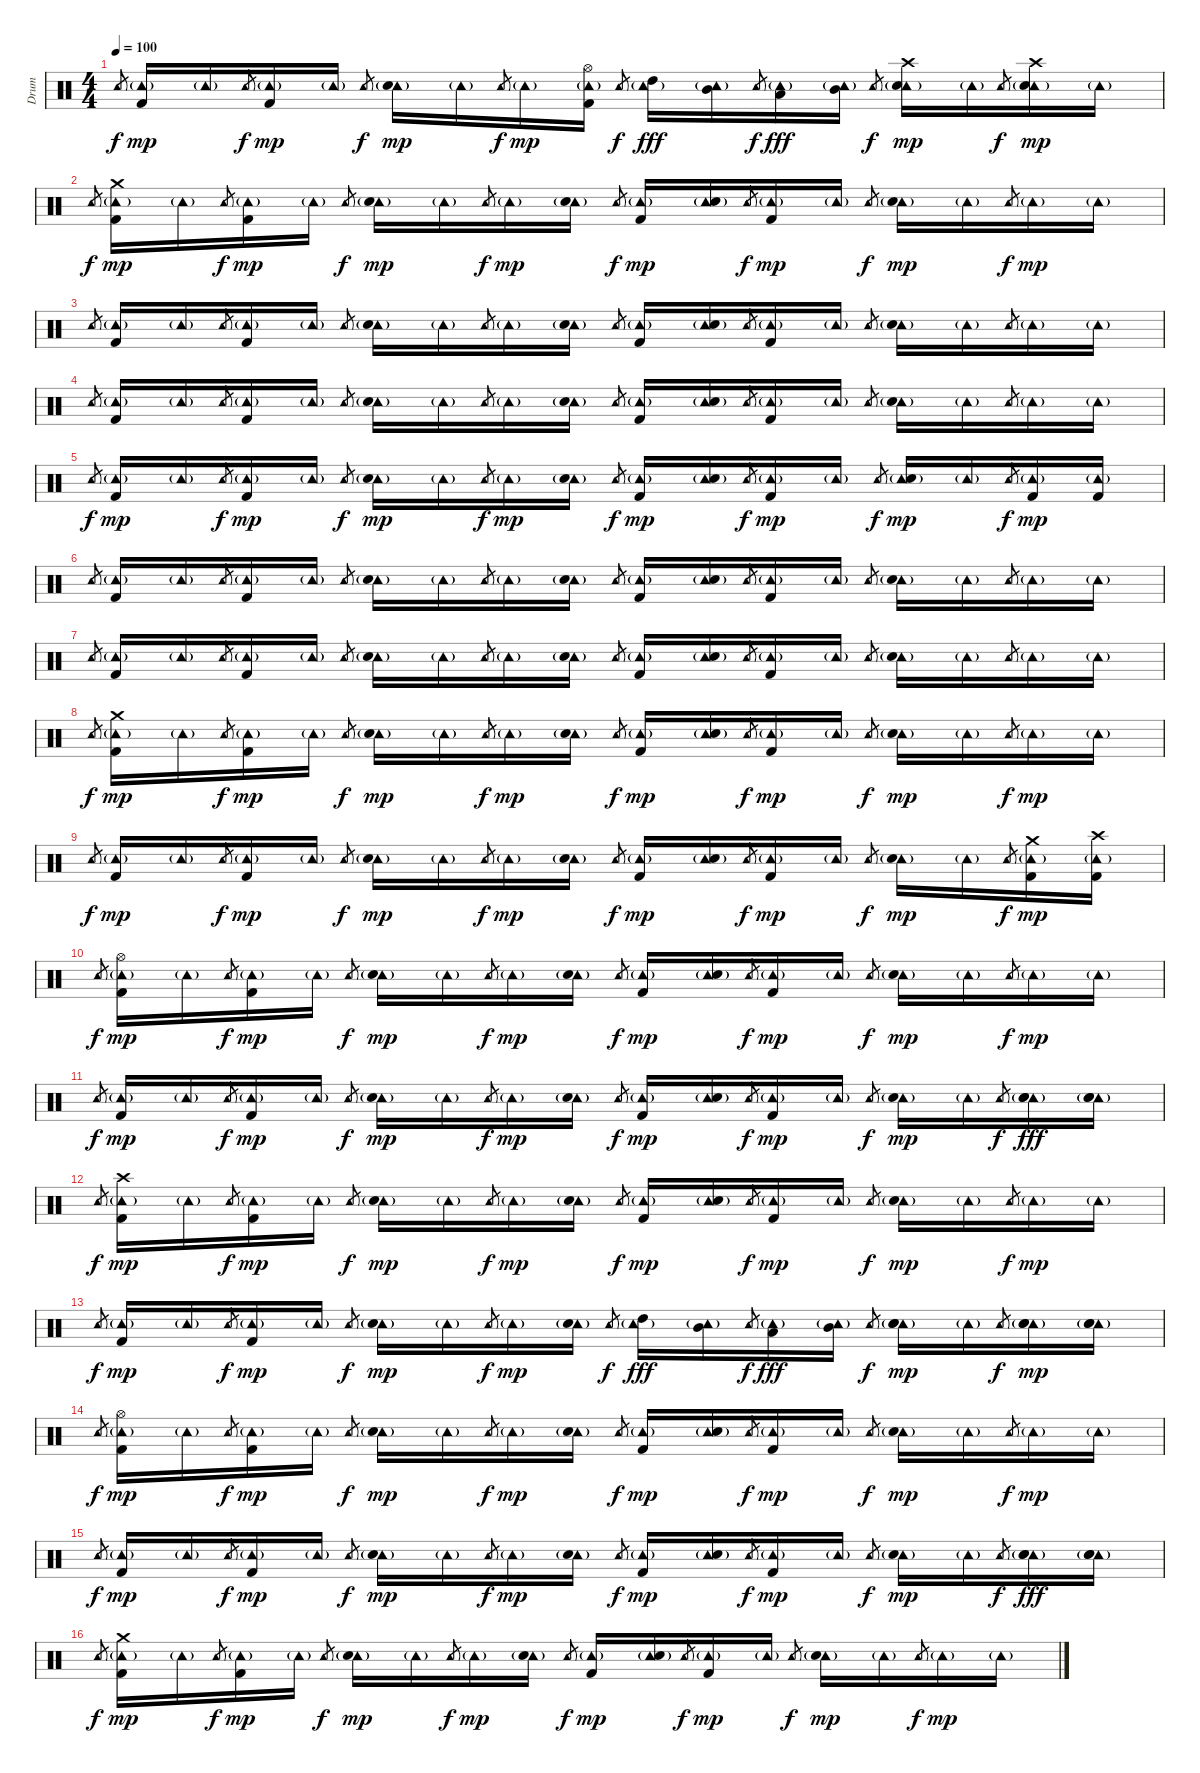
\track ("Drum" "Drum") {instrument percussion}
\staff {score}
\articulation defaults
\ts (4 4)
\tempo 100
\clef neutral
\ks c "Tambourine (hit)".8{gr dy f}
("Tambourine (hit)"{g} "Kick (hit) 2").16{dy mp} "Tambourine (hit)"{g}.16 "Tambourine (hit)".8{gr dy f} ("Tambourine (hit)"{g} "Kick (hit) 2").16{dy mp} "Tambourine (hit)"{g}.16 "Tambourine (hit)".8{gr dy f} ("Tambourine (hit)"{g} "Electric Snare (hit)").16{dy mp} "Tambourine (hit)"{g}.16 "Tambourine (hit)".8{gr dy f} "Tambourine (hit)"{g}.16{dy mp} ("Hi-Hat (open)" "Tambourine (hit)"{g} "Kick (hit) 2").16 "Tambourine (hit)".8{gr dy f} ("Tambourine (hit)"{g} "High Tom (hit)").16{dy fff} ("Tambourine (hit)"{g} "Mid Tom (hit)").16 "Tambourine (hit)".8{gr dy f} ("Tambourine (hit)"{g} "Low Tom (hit)").16{dy fff} ("Tambourine (hit)"{g} "Mid Tom (hit)").16 "Tambourine (hit)".8{gr dy f} ("Crash high (hit)" "Tambourine (hit)"{g} "Electric Snare (hit)").16{dy mp} "Tambourine (hit)"{g}.16 "Tambourine (hit)".8{gr dy f} ("Crash high (hit)" "Tambourine (hit)"{g} "Electric Snare (hit)").16{dy mp} "Tambourine (hit)"{g}.16 |
"Tambourine (hit)".8{gr dy f} ("Crash medium (hit)" "Tambourine (hit)"{g} "Kick (hit) 2").16{dy mp} "Tambourine (hit)"{g}.16 "Tambourine (hit)".8{gr dy f} ("Tambourine (hit)"{g} "Kick (hit) 2").16{dy mp} "Tambourine (hit)"{g}.16 "Tambourine (hit)".8{gr dy f} ("Tambourine (hit)"{g} "Electric Snare (hit)").16{dy mp} "Tambourine (hit)"{g}.16 "Tambourine (hit)".8{gr dy f} "Tambourine (hit)"{g}.16{dy mp} ("Tambourine (hit)"{g} "Electric Snare (hit)").16 "Tambourine (hit)".8{gr dy f} ("Tambourine (hit)"{g} "Kick (hit) 2").16{dy mp} ("Tambourine (hit)"{g} "Electric Snare (hit)").16 "Tambourine (hit)".8{gr dy f} ("Tambourine (hit)"{g} "Kick (hit) 2").16{dy mp} "Tambourine (hit)"{g}.16 "Tambourine (hit)".8{gr dy f} ("Tambourine (hit)"{g} "Electric Snare (hit)").16{dy mp} "Tambourine (hit)"{g}.16 "Tambourine (hit)".8{gr dy f} "Tambourine (hit)"{g}.16{dy mp} "Tambourine (hit)"{g}.16 |
"Tambourine (hit)".8{gr} ("Tambourine (hit)"{g} "Kick (hit) 2").16 "Tambourine (hit)"{g}.16 "Tambourine (hit)".8{gr} ("Tambourine (hit)"{g} "Kick (hit) 2").16 "Tambourine (hit)"{g}.16 "Tambourine (hit)".8{gr} ("Tambourine (hit)"{g} "Electric Snare (hit)").16 "Tambourine (hit)"{g}.16 "Tambourine (hit)".8{gr} "Tambourine (hit)"{g}.16 ("Tambourine (hit)"{g} "Electric Snare (hit)").16 "Tambourine (hit)".8{gr} ("Tambourine (hit)"{g} "Kick (hit) 2").16 ("Tambourine (hit)"{g} "Electric Snare (hit)").16 "Tambourine (hit)".8{gr} ("Tambourine (hit)"{g} "Kick (hit) 2").16 "Tambourine (hit)"{g}.16 "Tambourine (hit)".8{gr} ("Tambourine (hit)"{g} "Electric Snare (hit)").16 "Tambourine (hit)"{g}.16 "Tambourine (hit)".8{gr} "Tambourine (hit)"{g}.16 "Tambourine (hit)"{g}.16 |
"Tambourine (hit)".8{gr} ("Tambourine (hit)"{g} "Kick (hit) 2").16 "Tambourine (hit)"{g}.16 "Tambourine (hit)".8{gr} ("Tambourine (hit)"{g} "Kick (hit) 2").16 "Tambourine (hit)"{g}.16 "Tambourine (hit)".8{gr} ("Tambourine (hit)"{g} "Electric Snare (hit)").16 "Tambourine (hit)"{g}.16 "Tambourine (hit)".8{gr} "Tambourine (hit)"{g}.16 ("Tambourine (hit)"{g} "Electric Snare (hit)").16 "Tambourine (hit)".8{gr} ("Tambourine (hit)"{g} "Kick (hit) 2").16 ("Tambourine (hit)"{g} "Electric Snare (hit)").16 "Tambourine (hit)".8{gr} ("Tambourine (hit)"{g} "Kick (hit) 2").16 "Tambourine (hit)"{g}.16 "Tambourine (hit)".8{gr} ("Tambourine (hit)"{g} "Electric Snare (hit)").16 "Tambourine (hit)"{g}.16 "Tambourine (hit)".8{gr} "Tambourine (hit)"{g}.16 "Tambourine (hit)"{g}.16 |
"Tambourine (hit)".8{gr dy f} ("Tambourine (hit)"{g} "Kick (hit) 2").16{dy mp} "Tambourine (hit)"{g}.16 "Tambourine (hit)".8{gr dy f} ("Tambourine (hit)"{g} "Kick (hit) 2").16{dy mp} "Tambourine (hit)"{g}.16 "Tambourine (hit)".8{gr dy f} ("Tambourine (hit)"{g} "Electric Snare (hit)").16{dy mp} "Tambourine (hit)"{g}.16 "Tambourine (hit)".8{gr dy f} "Tambourine (hit)"{g}.16{dy mp} ("Tambourine (hit)"{g} "Electric Snare (hit)").16 "Tambourine (hit)".8{gr dy f} ("Tambourine (hit)"{g} "Kick (hit) 2").16{dy mp} ("Tambourine (hit)"{g} "Electric Snare (hit)").16 "Tambourine (hit)".8{gr dy f} ("Tambourine (hit)"{g} "Kick (hit) 2").16{dy mp} "Tambourine (hit)"{g}.16 "Tambourine (hit)".8{gr dy f} ("Tambourine (hit)"{g} "Electric Snare (hit)").16{dy mp} "Tambourine (hit)"{g}.16 "Tambourine (hit)".8{gr dy f} ("Tambourine (hit)"{g} "Kick (hit) 2").16{dy mp} ("Tambourine (hit)"{g} "Kick (hit) 2").16 |
"Tambourine (hit)".8{gr} ("Tambourine (hit)"{g} "Kick (hit) 2").16 "Tambourine (hit)"{g}.16 "Tambourine (hit)".8{gr} ("Tambourine (hit)"{g} "Kick (hit) 2").16 "Tambourine (hit)"{g}.16 "Tambourine (hit)".8{gr} ("Tambourine (hit)"{g} "Electric Snare (hit)").16 "Tambourine (hit)"{g}.16 "Tambourine (hit)".8{gr} "Tambourine (hit)"{g}.16 ("Tambourine (hit)"{g} "Electric Snare (hit)").16 "Tambourine (hit)".8{gr} ("Tambourine (hit)"{g} "Kick (hit) 2").16 ("Tambourine (hit)"{g} "Electric Snare (hit)").16 "Tambourine (hit)".8{gr} ("Tambourine (hit)"{g} "Kick (hit) 2").16 "Tambourine (hit)"{g}.16 "Tambourine (hit)".8{gr} ("Tambourine (hit)"{g} "Electric Snare (hit)").16 "Tambourine (hit)"{g}.16 "Tambourine (hit)".8{gr} "Tambourine (hit)"{g}.16 "Tambourine (hit)"{g}.16 |
"Tambourine (hit)".8{gr} ("Tambourine (hit)"{g} "Kick (hit) 2").16 "Tambourine (hit)"{g}.16 "Tambourine (hit)".8{gr} ("Tambourine (hit)"{g} "Kick (hit) 2").16 "Tambourine (hit)"{g}.16 "Tambourine (hit)".8{gr} ("Tambourine (hit)"{g} "Electric Snare (hit)").16 "Tambourine (hit)"{g}.16 "Tambourine (hit)".8{gr} "Tambourine (hit)"{g}.16 ("Tambourine (hit)"{g} "Electric Snare (hit)").16 "Tambourine (hit)".8{gr} ("Tambourine (hit)"{g} "Kick (hit) 2").16 ("Tambourine (hit)"{g} "Electric Snare (hit)").16 "Tambourine (hit)".8{gr} ("Tambourine (hit)"{g} "Kick (hit) 2").16 "Tambourine (hit)"{g}.16 "Tambourine (hit)".8{gr} ("Tambourine (hit)"{g} "Electric Snare (hit)").16 "Tambourine (hit)"{g}.16 "Tambourine (hit)".8{gr} "Tambourine (hit)"{g}.16 "Tambourine (hit)"{g}.16 |
"Tambourine (hit)".8{gr dy f} ("Crash medium (hit)" "Tambourine (hit)"{g} "Kick (hit) 2").16{dy mp} "Tambourine (hit)"{g}.16 "Tambourine (hit)".8{gr dy f} ("Tambourine (hit)"{g} "Kick (hit) 2").16{dy mp} "Tambourine (hit)"{g}.16 "Tambourine (hit)".8{gr dy f} ("Tambourine (hit)"{g} "Electric Snare (hit)").16{dy mp} "Tambourine (hit)"{g}.16 "Tambourine (hit)".8{gr dy f} "Tambourine (hit)"{g}.16{dy mp} ("Tambourine (hit)"{g} "Electric Snare (hit)").16 "Tambourine (hit)".8{gr dy f} ("Tambourine (hit)"{g} "Kick (hit) 2").16{dy mp} ("Tambourine (hit)"{g} "Electric Snare (hit)").16 "Tambourine (hit)".8{gr dy f} ("Tambourine (hit)"{g} "Kick (hit) 2").16{dy mp} "Tambourine (hit)"{g}.16 "Tambourine (hit)".8{gr dy f} ("Tambourine (hit)"{g} "Electric Snare (hit)").16{dy mp} "Tambourine (hit)"{g}.16 "Tambourine (hit)".8{gr dy f} "Tambourine (hit)"{g}.16{dy mp} "Tambourine (hit)"{g}.16 |
"Tambourine (hit)".8{gr dy f} ("Tambourine (hit)"{g} "Kick (hit) 2").16{dy mp} "Tambourine (hit)"{g}.16 "Tambourine (hit)".8{gr dy f} ("Tambourine (hit)"{g} "Kick (hit) 2").16{dy mp} "Tambourine (hit)"{g}.16 "Tambourine (hit)".8{gr dy f} ("Tambourine (hit)"{g} "Electric Snare (hit)").16{dy mp} "Tambourine (hit)"{g}.16 "Tambourine (hit)".8{gr dy f} "Tambourine (hit)"{g}.16{dy mp} ("Tambourine (hit)"{g} "Electric Snare (hit)").16 "Tambourine (hit)".8{gr dy f} ("Tambourine (hit)"{g} "Kick (hit) 2").16{dy mp} ("Tambourine (hit)"{g} "Electric Snare (hit)").16 "Tambourine (hit)".8{gr dy f} ("Tambourine (hit)"{g} "Kick (hit) 2").16{dy mp} "Tambourine (hit)"{g}.16 "Tambourine (hit)".8{gr dy f} ("Tambourine (hit)"{g} "Electric Snare (hit)").16{dy mp} "Tambourine (hit)"{g}.16 "Tambourine (hit)".8{gr dy f} ("Crash medium (hit)" "Tambourine (hit)"{g} "Kick (hit) 2").16{dy mp} ("Crash high (hit)" "Tambourine (hit)"{g} "Kick (hit) 2").16 |
"Tambourine (hit)".8{gr dy f} ("Hi-Hat (open)" "Tambourine (hit)"{g} "Kick (hit) 2").16{dy mp} "Tambourine (hit)"{g}.16 "Tambourine (hit)".8{gr dy f} ("Tambourine (hit)"{g} "Kick (hit) 2").16{dy mp} "Tambourine (hit)"{g}.16 "Tambourine (hit)".8{gr dy f} ("Tambourine (hit)"{g} "Electric Snare (hit)").16{dy mp} "Tambourine (hit)"{g}.16 "Tambourine (hit)".8{gr dy f} "Tambourine (hit)"{g}.16{dy mp} ("Tambourine (hit)"{g} "Electric Snare (hit)").16 "Tambourine (hit)".8{gr dy f} ("Tambourine (hit)"{g} "Kick (hit) 2").16{dy mp} ("Tambourine (hit)"{g} "Electric Snare (hit)").16 "Tambourine (hit)".8{gr dy f} ("Tambourine (hit)"{g} "Kick (hit) 2").16{dy mp} "Tambourine (hit)"{g}.16 "Tambourine (hit)".8{gr dy f} ("Tambourine (hit)"{g} "Electric Snare (hit)").16{dy mp} "Tambourine (hit)"{g}.16 "Tambourine (hit)".8{gr dy f} "Tambourine (hit)"{g}.16{dy mp} "Tambourine (hit)"{g}.16 |
"Tambourine (hit)".8{gr dy f} ("Tambourine (hit)"{g} "Kick (hit) 2").16{dy mp} "Tambourine (hit)"{g}.16 "Tambourine (hit)".8{gr dy f} ("Tambourine (hit)"{g} "Kick (hit) 2").16{dy mp} "Tambourine (hit)"{g}.16 "Tambourine (hit)".8{gr dy f} ("Tambourine (hit)"{g} "Electric Snare (hit)").16{dy mp} "Tambourine (hit)"{g}.16 "Tambourine (hit)".8{gr dy f} "Tambourine (hit)"{g}.16{dy mp} ("Tambourine (hit)"{g} "Electric Snare (hit)").16 "Tambourine (hit)".8{gr dy f} ("Tambourine (hit)"{g} "Kick (hit) 2").16{dy mp} ("Tambourine (hit)"{g} "Electric Snare (hit)").16 "Tambourine (hit)".8{gr dy f} ("Tambourine (hit)"{g} "Kick (hit) 2").16{dy mp} "Tambourine (hit)"{g}.16 "Tambourine (hit)".8{gr dy f} ("Tambourine (hit)"{g} "Electric Snare (hit)").16{dy mp} "Tambourine (hit)"{g}.16 "Tambourine (hit)".8{gr dy f} ("Tambourine (hit)"{g} "Electric Snare (hit)" "Electric Snare (hit)").16{dy fff} ("Tambourine (hit)"{g} "Electric Snare (hit)" "Electric Snare (hit)").16 |
"Tambourine (hit)".8{gr dy f} ("Crash high (hit)" "Tambourine (hit)"{g} "Kick (hit) 2").16{dy mp} "Tambourine (hit)"{g}.16 "Tambourine (hit)".8{gr dy f} ("Tambourine (hit)"{g} "Kick (hit) 2").16{dy mp} "Tambourine (hit)"{g}.16 "Tambourine (hit)".8{gr dy f} ("Tambourine (hit)"{g} "Electric Snare (hit)").16{dy mp} "Tambourine (hit)"{g}.16 "Tambourine (hit)".8{gr dy f} "Tambourine (hit)"{g}.16{dy mp} ("Tambourine (hit)"{g} "Electric Snare (hit)").16 "Tambourine (hit)".8{gr dy f} ("Tambourine (hit)"{g} "Kick (hit) 2").16{dy mp} ("Tambourine (hit)"{g} "Electric Snare (hit)").16 "Tambourine (hit)".8{gr dy f} ("Tambourine (hit)"{g} "Kick (hit) 2").16{dy mp} "Tambourine (hit)"{g}.16 "Tambourine (hit)".8{gr dy f} ("Tambourine (hit)"{g} "Electric Snare (hit)").16{dy mp} "Tambourine (hit)"{g}.16 "Tambourine (hit)".8{gr dy f} "Tambourine (hit)"{g}.16{dy mp} "Tambourine (hit)"{g}.16 |
"Tambourine (hit)".8{gr dy f} ("Tambourine (hit)"{g} "Kick (hit) 2").16{dy mp} "Tambourine (hit)"{g}.16 "Tambourine (hit)".8{gr dy f} ("Tambourine (hit)"{g} "Kick (hit) 2").16{dy mp} "Tambourine (hit)"{g}.16 "Tambourine (hit)".8{gr dy f} ("Tambourine (hit)"{g} "Electric Snare (hit)").16{dy mp} "Tambourine (hit)"{g}.16 "Tambourine (hit)".8{gr dy f} "Tambourine (hit)"{g}.16{dy mp} ("Tambourine (hit)"{g} "Electric Snare (hit)").16 "Tambourine (hit)".8{gr dy f} ("Tambourine (hit)"{g} "High Tom (hit)").16{dy fff} ("Tambourine (hit)"{g} "Mid Tom (hit)").16 "Tambourine (hit)".8{gr dy f} ("Tambourine (hit)"{g} "Low Tom (hit)").16{dy fff} ("Tambourine (hit)"{g} "Mid Tom (hit)").16 "Tambourine (hit)".8{gr dy f} ("Tambourine (hit)"{g} "Electric Snare (hit)" "Electric Snare (hit)").16{dy mp} "Tambourine (hit)"{g}.16 "Tambourine (hit)".8{gr dy f} ("Tambourine (hit)"{g} "Electric Snare (hit)" "Electric Snare (hit)").16{dy mp} ("Tambourine (hit)"{g} "Electric Snare (hit)" "Electric Snare (hit)").16 |
"Tambourine (hit)".8{gr dy f} ("Hi-Hat (open)" "Tambourine (hit)"{g} "Kick (hit) 2").16{dy mp} "Tambourine (hit)"{g}.16 "Tambourine (hit)".8{gr dy f} ("Tambourine (hit)"{g} "Kick (hit) 2").16{dy mp} "Tambourine (hit)"{g}.16 "Tambourine (hit)".8{gr dy f} ("Tambourine (hit)"{g} "Electric Snare (hit)").16{dy mp} "Tambourine (hit)"{g}.16 "Tambourine (hit)".8{gr dy f} "Tambourine (hit)"{g}.16{dy mp} ("Tambourine (hit)"{g} "Electric Snare (hit)").16 "Tambourine (hit)".8{gr dy f} ("Tambourine (hit)"{g} "Kick (hit) 2").16{dy mp} ("Tambourine (hit)"{g} "Electric Snare (hit)").16 "Tambourine (hit)".8{gr dy f} ("Tambourine (hit)"{g} "Kick (hit) 2").16{dy mp} "Tambourine (hit)"{g}.16 "Tambourine (hit)".8{gr dy f} ("Tambourine (hit)"{g} "Electric Snare (hit)").16{dy mp} "Tambourine (hit)"{g}.16 "Tambourine (hit)".8{gr dy f} "Tambourine (hit)"{g}.16{dy mp} "Tambourine (hit)"{g}.16 |
"Tambourine (hit)".8{gr dy f} ("Tambourine (hit)"{g} "Kick (hit) 2").16{dy mp} "Tambourine (hit)"{g}.16 "Tambourine (hit)".8{gr dy f} ("Tambourine (hit)"{g} "Kick (hit) 2").16{dy mp} "Tambourine (hit)"{g}.16 "Tambourine (hit)".8{gr dy f} ("Tambourine (hit)"{g} "Electric Snare (hit)").16{dy mp} "Tambourine (hit)"{g}.16 "Tambourine (hit)".8{gr dy f} "Tambourine (hit)"{g}.16{dy mp} ("Tambourine (hit)"{g} "Electric Snare (hit)").16 "Tambourine (hit)".8{gr dy f} ("Tambourine (hit)"{g} "Kick (hit) 2").16{dy mp} ("Tambourine (hit)"{g} "Electric Snare (hit)").16 "Tambourine (hit)".8{gr dy f} ("Tambourine (hit)"{g} "Kick (hit) 2").16{dy mp} "Tambourine (hit)"{g}.16 "Tambourine (hit)".8{gr dy f} ("Tambourine (hit)"{g} "Electric Snare (hit)").16{dy mp} "Tambourine (hit)"{g}.16 "Tambourine (hit)".8{gr dy f} ("Tambourine (hit)"{g} "Electric Snare (hit)" "Electric Snare (hit)").16{dy fff} ("Tambourine (hit)"{g} "Electric Snare (hit)" "Electric Snare (hit)").16 |
"Tambourine (hit)".8{gr dy f} ("Crash medium (hit)" "Tambourine (hit)"{g} "Kick (hit) 2").16{dy mp} "Tambourine (hit)"{g}.16 "Tambourine (hit)".8{gr dy f} ("Tambourine (hit)"{g} "Kick (hit) 2").16{dy mp} "Tambourine (hit)"{g}.16 "Tambourine (hit)".8{gr dy f} ("Tambourine (hit)"{g} "Electric Snare (hit)").16{dy mp} "Tambourine (hit)"{g}.16 "Tambourine (hit)".8{gr dy f} "Tambourine (hit)"{g}.16{dy mp} ("Tambourine (hit)"{g} "Electric Snare (hit)").16 "Tambourine (hit)".8{gr dy f} ("Tambourine (hit)"{g} "Kick (hit) 2").16{dy mp} ("Tambourine (hit)"{g} "Electric Snare (hit)").16 "Tambourine (hit)".8{gr dy f} ("Tambourine (hit)"{g} "Kick (hit) 2").16{dy mp} "Tambourine (hit)"{g}.16 "Tambourine (hit)".8{gr dy f} ("Tambourine (hit)"{g} "Electric Snare (hit)").16{dy mp} "Tambourine (hit)"{g}.16 "Tambourine (hit)".8{gr dy f} "Tambourine (hit)"{g}.16{dy mp} "Tambourine (hit)"{g}.16
